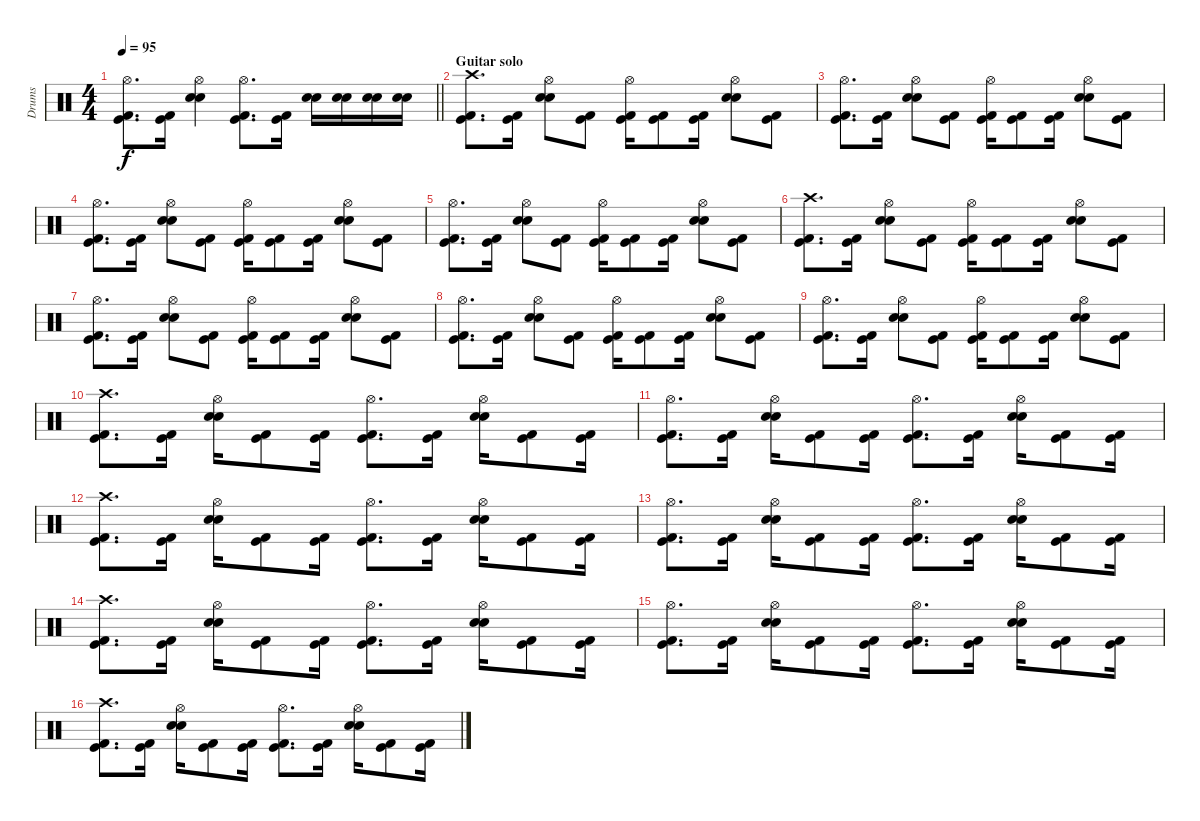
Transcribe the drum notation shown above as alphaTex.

\track ("Drums" "Drums") {instrument percussion}
\staff {score}
\articulation defaults
\ts (4 4)
\tempo 95
\clef neutral
\barLineRight lightlight
\ks c
("Hi-Hat (open)" "Kick (hit)" "Kick (hit) 2").8{d dy f} ("Kick (hit)" "Kick (hit) 2").16 ("Hi-Hat (open)" "Snare (hit) 2" "Electric Snare (hit)").4 ("Hi-Hat (open)" "Kick (hit)" "Kick (hit) 2").8{d} ("Kick (hit)" "Kick (hit) 2").16 ("Snare (hit) 2" "Electric Snare (hit)").16 ("Snare (hit) 2" "Electric Snare (hit)").16 ("Snare (hit) 2" "Electric Snare (hit)").16 ("Snare (hit) 2" "Electric Snare (hit)").16 |
\section ("" "Guitar solo")
("Crash high (hit)" "Kick (hit)" "Kick (hit) 2").8{d} ("Kick (hit)" "Kick (hit) 2").16 ("Hi-Hat (open)" "Snare (hit) 2" "Electric Snare (hit)").8 ("Kick (hit)" "Kick (hit) 2").8 ("Hi-Hat (open)" "Kick (hit)" "Kick (hit) 2").16 ("Kick (hit)" "Kick (hit) 2").8 ("Kick (hit)" "Kick (hit) 2").16 ("Hi-Hat (open)" "Snare (hit) 2" "Electric Snare (hit)").8 ("Kick (hit)" "Kick (hit) 2").8 |
("Hi-Hat (open)" "Kick (hit)" "Kick (hit) 2").8{d} ("Kick (hit)" "Kick (hit) 2").16 ("Hi-Hat (open)" "Snare (hit) 2" "Electric Snare (hit)").8 ("Kick (hit)" "Kick (hit) 2").8 ("Hi-Hat (open)" "Kick (hit)" "Kick (hit) 2").16 ("Kick (hit)" "Kick (hit) 2").8 ("Kick (hit)" "Kick (hit) 2").16 ("Hi-Hat (open)" "Snare (hit) 2" "Electric Snare (hit)").8 ("Kick (hit)" "Kick (hit) 2").8 |
("Hi-Hat (open)" "Kick (hit)" "Kick (hit) 2").8{d} ("Kick (hit)" "Kick (hit) 2").16 ("Hi-Hat (open)" "Snare (hit) 2" "Electric Snare (hit)").8 ("Kick (hit)" "Kick (hit) 2").8 ("Hi-Hat (open)" "Kick (hit)" "Kick (hit) 2").16 ("Kick (hit)" "Kick (hit) 2").8 ("Kick (hit)" "Kick (hit) 2").16 ("Hi-Hat (open)" "Snare (hit) 2" "Electric Snare (hit)").8 ("Kick (hit)" "Kick (hit) 2").8 |
("Hi-Hat (open)" "Kick (hit)" "Kick (hit) 2").8{d} ("Kick (hit)" "Kick (hit) 2").16 ("Hi-Hat (open)" "Snare (hit) 2" "Electric Snare (hit)").8 ("Kick (hit)" "Kick (hit) 2").8 ("Hi-Hat (open)" "Kick (hit)" "Kick (hit) 2").16 ("Kick (hit)" "Kick (hit) 2").8 ("Kick (hit)" "Kick (hit) 2").16 ("Hi-Hat (open)" "Snare (hit) 2" "Electric Snare (hit)").8 ("Kick (hit)" "Kick (hit) 2").8 |
("Crash high (hit)" "Kick (hit)" "Kick (hit) 2").8{d} ("Kick (hit)" "Kick (hit) 2").16 ("Hi-Hat (open)" "Snare (hit) 2" "Electric Snare (hit)").8 ("Kick (hit)" "Kick (hit) 2").8 ("Hi-Hat (open)" "Kick (hit)" "Kick (hit) 2").16 ("Kick (hit)" "Kick (hit) 2").8 ("Kick (hit)" "Kick (hit) 2").16 ("Hi-Hat (open)" "Snare (hit) 2" "Electric Snare (hit)").8 ("Kick (hit)" "Kick (hit) 2").8 |
("Hi-Hat (open)" "Kick (hit)" "Kick (hit) 2").8{d} ("Kick (hit)" "Kick (hit) 2").16 ("Hi-Hat (open)" "Snare (hit) 2" "Electric Snare (hit)").8 ("Kick (hit)" "Kick (hit) 2").8 ("Hi-Hat (open)" "Kick (hit)" "Kick (hit) 2").16 ("Kick (hit)" "Kick (hit) 2").8 ("Kick (hit)" "Kick (hit) 2").16 ("Hi-Hat (open)" "Snare (hit) 2" "Electric Snare (hit)").8 ("Kick (hit)" "Kick (hit) 2").8 |
("Hi-Hat (open)" "Kick (hit)" "Kick (hit) 2").8{d} ("Kick (hit)" "Kick (hit) 2").16 ("Hi-Hat (open)" "Snare (hit) 2" "Electric Snare (hit)").8 ("Kick (hit)" "Kick (hit) 2").8 ("Hi-Hat (open)" "Kick (hit)" "Kick (hit) 2").16 ("Kick (hit)" "Kick (hit) 2").8 ("Kick (hit)" "Kick (hit) 2").16 ("Hi-Hat (open)" "Snare (hit) 2" "Electric Snare (hit)").8 ("Kick (hit)" "Kick (hit) 2").8 |
("Hi-Hat (open)" "Kick (hit)" "Kick (hit) 2").8{d} ("Kick (hit)" "Kick (hit) 2").16 ("Hi-Hat (open)" "Snare (hit) 2" "Electric Snare (hit)").8 ("Kick (hit)" "Kick (hit) 2").8 ("Hi-Hat (open)" "Kick (hit)" "Kick (hit) 2").16 ("Kick (hit)" "Kick (hit) 2").8 ("Kick (hit)" "Kick (hit) 2").16 ("Hi-Hat (open)" "Snare (hit) 2" "Electric Snare (hit)").8 ("Kick (hit)" "Kick (hit) 2").8 |
("Crash high (hit)" "Kick (hit)" "Kick (hit) 2").8{d} ("Kick (hit)" "Kick (hit) 2").16 ("Hi-Hat (open)" "Snare (hit) 2" "Electric Snare (hit)").16 ("Kick (hit)" "Kick (hit) 2").8 ("Kick (hit)" "Kick (hit) 2").16 ("Hi-Hat (open)" "Kick (hit)" "Kick (hit) 2").8{d} ("Kick (hit)" "Kick (hit) 2").16 ("Hi-Hat (open)" "Snare (hit) 2" "Electric Snare (hit)").16 ("Kick (hit)" "Kick (hit) 2").8 ("Kick (hit)" "Kick (hit) 2").16 |
("Hi-Hat (open)" "Kick (hit)" "Kick (hit) 2").8{d} ("Kick (hit)" "Kick (hit) 2").16 ("Hi-Hat (open)" "Snare (hit) 2" "Electric Snare (hit)").16 ("Kick (hit)" "Kick (hit) 2").8 ("Kick (hit)" "Kick (hit) 2").16 ("Hi-Hat (open)" "Kick (hit)" "Kick (hit) 2").8{d} ("Kick (hit)" "Kick (hit) 2").16 ("Hi-Hat (open)" "Snare (hit) 2" "Electric Snare (hit)").16 ("Kick (hit)" "Kick (hit) 2").8 ("Kick (hit)" "Kick (hit) 2").16 |
("Crash high (hit)" "Kick (hit)" "Kick (hit) 2").8{d} ("Kick (hit)" "Kick (hit) 2").16 ("Hi-Hat (open)" "Snare (hit) 2" "Electric Snare (hit)").16 ("Kick (hit)" "Kick (hit) 2").8 ("Kick (hit)" "Kick (hit) 2").16 ("Hi-Hat (open)" "Kick (hit)" "Kick (hit) 2").8{d} ("Kick (hit)" "Kick (hit) 2").16 ("Hi-Hat (open)" "Snare (hit) 2" "Electric Snare (hit)").16 ("Kick (hit)" "Kick (hit) 2").8 ("Kick (hit)" "Kick (hit) 2").16 |
("Hi-Hat (open)" "Kick (hit)" "Kick (hit) 2").8{d} ("Kick (hit)" "Kick (hit) 2").16 ("Hi-Hat (open)" "Snare (hit) 2" "Electric Snare (hit)").16 ("Kick (hit)" "Kick (hit) 2").8 ("Kick (hit)" "Kick (hit) 2").16 ("Hi-Hat (open)" "Kick (hit)" "Kick (hit) 2").8{d} ("Kick (hit)" "Kick (hit) 2").16 ("Hi-Hat (open)" "Snare (hit) 2" "Electric Snare (hit)").16 ("Kick (hit)" "Kick (hit) 2").8 ("Kick (hit)" "Kick (hit) 2").16 |
("Crash high (hit)" "Kick (hit)" "Kick (hit) 2").8{d} ("Kick (hit)" "Kick (hit) 2").16 ("Hi-Hat (open)" "Snare (hit) 2" "Electric Snare (hit)").16 ("Kick (hit)" "Kick (hit) 2").8 ("Kick (hit)" "Kick (hit) 2").16 ("Hi-Hat (open)" "Kick (hit)" "Kick (hit) 2").8{d} ("Kick (hit)" "Kick (hit) 2").16 ("Hi-Hat (open)" "Snare (hit) 2" "Electric Snare (hit)").16 ("Kick (hit)" "Kick (hit) 2").8 ("Kick (hit)" "Kick (hit) 2").16 |
("Hi-Hat (open)" "Kick (hit)" "Kick (hit) 2").8{d} ("Kick (hit)" "Kick (hit) 2").16 ("Hi-Hat (open)" "Snare (hit) 2" "Electric Snare (hit)").16 ("Kick (hit)" "Kick (hit) 2").8 ("Kick (hit)" "Kick (hit) 2").16 ("Hi-Hat (open)" "Kick (hit)" "Kick (hit) 2").8{d} ("Kick (hit)" "Kick (hit) 2").16 ("Hi-Hat (open)" "Snare (hit) 2" "Electric Snare (hit)").16 ("Kick (hit)" "Kick (hit) 2").8 ("Kick (hit)" "Kick (hit) 2").16 |
("Crash high (hit)" "Kick (hit)" "Kick (hit) 2").8{d} ("Kick (hit)" "Kick (hit) 2").16 ("Hi-Hat (open)" "Snare (hit) 2" "Electric Snare (hit)").16 ("Kick (hit)" "Kick (hit) 2").8 ("Kick (hit)" "Kick (hit) 2").16 ("Hi-Hat (open)" "Kick (hit)" "Kick (hit) 2").8{d} ("Kick (hit)" "Kick (hit) 2").16 ("Hi-Hat (open)" "Snare (hit) 2" "Electric Snare (hit)").16 ("Kick (hit)" "Kick (hit) 2").8 ("Kick (hit)" "Kick (hit) 2").16
